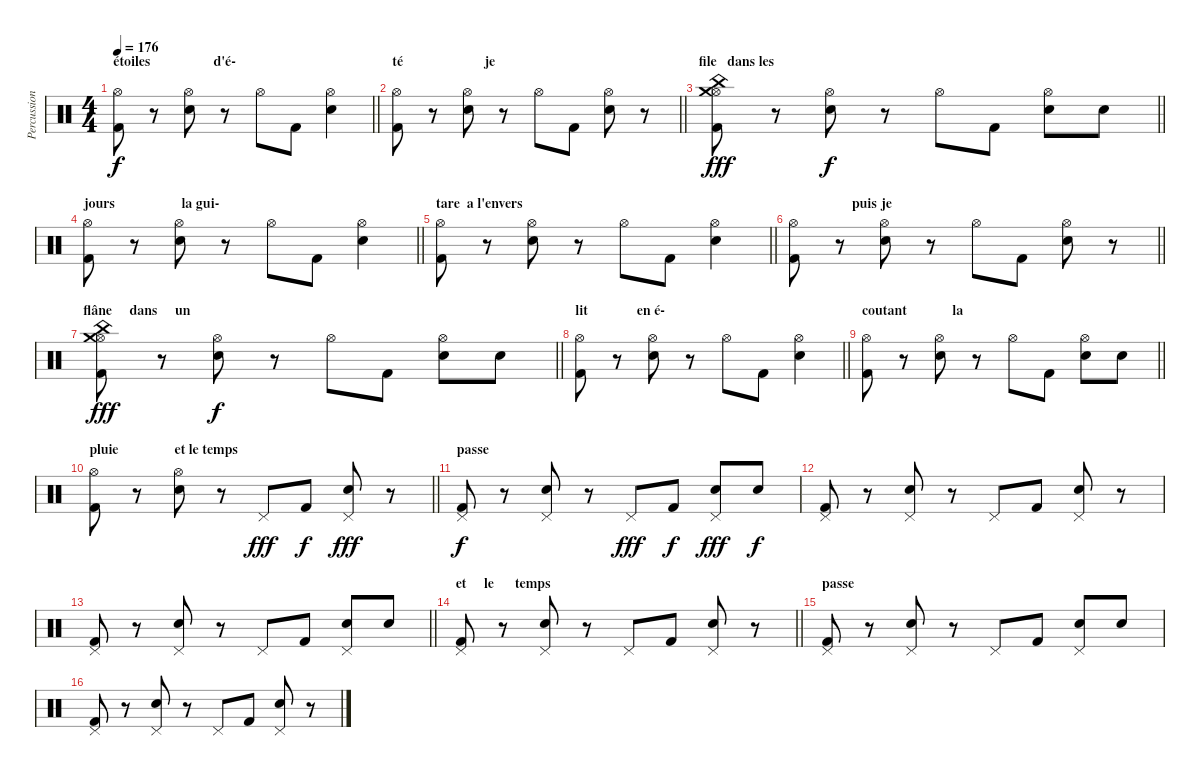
\track ("Percussions" "Percussion") {instrument percussion}
\staff {score}
\articulation defaults
\ts (4 4)
\section ("" "étoiles                  d'é-")
\tempo 176
\clef neutral
\barLineRight lightlight
\ks c
("Hi-Hat (open)" "Kick (hit) 2").8{dy f} r.8 ("Hi-Hat (open)" "Snare (hit) 2").8 r.8 "Hi-Hat (open)".8 "Kick (hit) 2".8 ("Hi-Hat (open)" "Snare (hit) 2").4 |
\section ("" "té                       je")
\barLineRight lightlight
("Hi-Hat (open)" "Kick (hit) 2").8 r.8 ("Hi-Hat (open)" "Snare (hit) 2").8 r.8 "Hi-Hat (open)".8 "Kick (hit) 2".8 ("Hi-Hat (open)" "Snare (hit) 2").8 r.8 |
\section ("" "file   dans les")
\barLineRight lightlight
("Hi-Hat (open)" "Kick (hit) 2" "Crash medium (hit)" "China (hit)").8{dy fff} r.8 ("Hi-Hat (open)" "Snare (hit) 2").8{dy f} r.8 "Hi-Hat (open)".8 "Kick (hit) 2".8 ("Hi-Hat (open)" "Snare (hit) 2").8 "Snare (hit) 2".8 |
\section ("" "jours                   la gui-")
\barLineRight lightlight
("Hi-Hat (open)" "Kick (hit) 2").8 r.8 ("Hi-Hat (open)" "Snare (hit) 2").8 r.8 "Hi-Hat (open)".8 "Kick (hit) 2".8 ("Hi-Hat (open)" "Snare (hit) 2").4 |
\section ("" "tare  a l'envers")
\barLineRight lightlight
("Hi-Hat (open)" "Kick (hit) 2").8 r.8 ("Hi-Hat (open)" "Snare (hit) 2").8 r.8 "Hi-Hat (open)".8 "Kick (hit) 2".8 ("Hi-Hat (open)" "Snare (hit) 2").4 |
\section ("" "                  puis je ")
\barLineRight lightlight
("Hi-Hat (open)" "Kick (hit) 2").8 r.8 ("Hi-Hat (open)" "Snare (hit) 2").8 r.8 "Hi-Hat (open)".8 "Kick (hit) 2".8 ("Hi-Hat (open)" "Snare (hit) 2").8 r.8 |
\section ("" "flâne     dans     un ")
\barLineRight lightlight
("Hi-Hat (open)" "Kick (hit) 2" "Crash medium (hit)" "China (hit)").8{dy fff} r.8 ("Hi-Hat (open)" "Snare (hit) 2").8{dy f} r.8 "Hi-Hat (open)".8 "Kick (hit) 2".8 ("Hi-Hat (open)" "Snare (hit) 2").8 "Snare (hit) 2".8 |
\section ("" "lit              en é-")
\barLineRight lightlight
("Hi-Hat (open)" "Kick (hit) 2").8 r.8 ("Hi-Hat (open)" "Snare (hit) 2").8 r.8 "Hi-Hat (open)".8 "Kick (hit) 2".8 ("Hi-Hat (open)" "Snare (hit) 2").4 |
\section ("" "coutant             la")
\barLineRight lightlight
("Hi-Hat (open)" "Kick (hit) 2").8 r.8 ("Hi-Hat (open)" "Snare (hit) 2").8 r.8 "Hi-Hat (open)".8 "Kick (hit) 2".8 ("Hi-Hat (open)" "Snare (hit) 2").8 "Snare (hit) 2".8 |
\section ("" "pluie                et le temps")
\barLineRight lightlight
("Hi-Hat (open)" "Kick (hit) 2").8 r.8 ("Hi-Hat (open)" "Snare (hit) 2").8 r.8 "Pedal Hi-Hat (hit)".8{dy fff} "Kick (hit) 2".8{dy f} ("Pedal Hi-Hat (hit)" "Snare (hit) 2").8{dy fff} r.8 |
\section ("" "passe")
("Pedal Hi-Hat (hit)" "Kick (hit) 2").8{dy f} r.8 ("Pedal Hi-Hat (hit)" "Snare (hit) 2").8 r.8 "Pedal Hi-Hat (hit)".8{dy fff} "Kick (hit) 2".8{dy f} ("Pedal Hi-Hat (hit)" "Snare (hit) 2").8{dy fff} "Snare (hit) 2".8{dy f} |
("Pedal Hi-Hat (hit)" "Kick (hit) 2").8 r.8 ("Pedal Hi-Hat (hit)" "Snare (hit) 2").8 r.8 "Pedal Hi-Hat (hit)".8 "Kick (hit) 2".8 ("Pedal Hi-Hat (hit)" "Snare (hit) 2").8 r.8 |
\barLineRight lightlight
("Pedal Hi-Hat (hit)" "Kick (hit) 2").8 r.8 ("Pedal Hi-Hat (hit)" "Snare (hit) 2").8 r.8 "Pedal Hi-Hat (hit)".8 "Kick (hit) 2".8 ("Pedal Hi-Hat (hit)" "Snare (hit) 2").8 "Snare (hit) 2".8 |
\section ("" "et     le      temps ")
\barLineRight lightlight
("Pedal Hi-Hat (hit)" "Kick (hit) 2").8 r.8 ("Pedal Hi-Hat (hit)" "Snare (hit) 2").8 r.8 "Pedal Hi-Hat (hit)".8 "Kick (hit) 2".8 ("Pedal Hi-Hat (hit)" "Snare (hit) 2").8 r.8 |
\section ("" "passe")
("Pedal Hi-Hat (hit)" "Kick (hit) 2").8 r.8 ("Pedal Hi-Hat (hit)" "Snare (hit) 2").8 r.8 "Pedal Hi-Hat (hit)".8 "Kick (hit) 2".8 ("Pedal Hi-Hat (hit)" "Snare (hit) 2").8 "Snare (hit) 2".8 |
("Pedal Hi-Hat (hit)" "Kick (hit) 2").8 r.8 ("Pedal Hi-Hat (hit)" "Snare (hit) 2").8 r.8 "Pedal Hi-Hat (hit)".8 "Kick (hit) 2".8 ("Pedal Hi-Hat (hit)" "Snare (hit) 2").8 r.8
